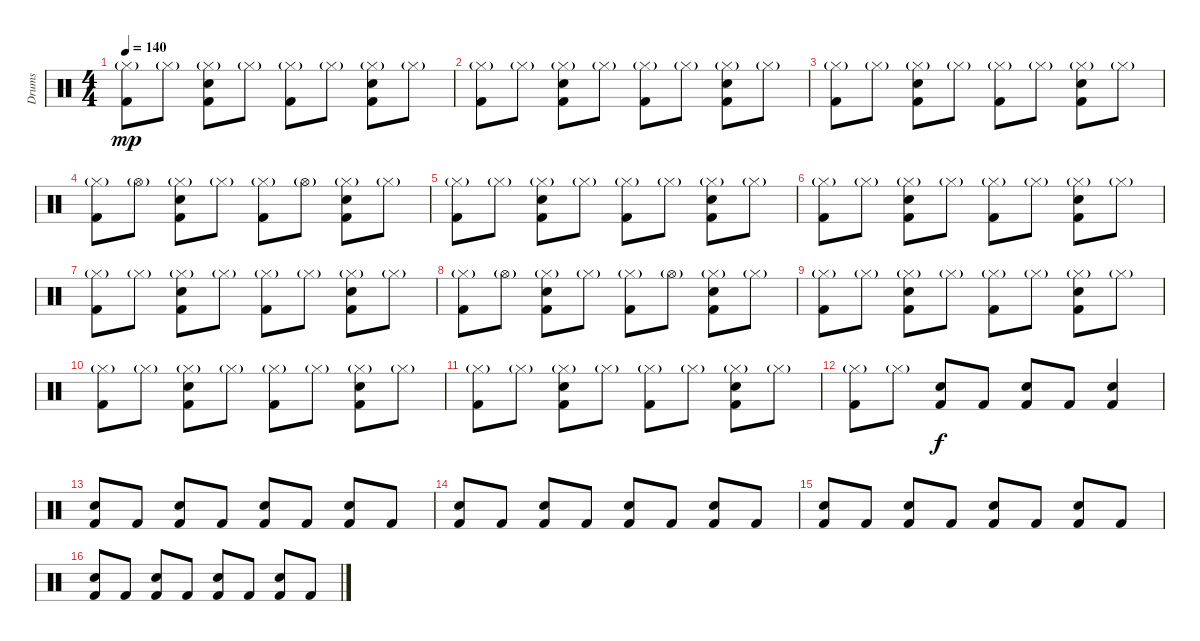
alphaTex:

\track ("Drums" "Drums") {instrument percussion}
\staff {score}
\articulation defaults
\ts (4 4)
\tempo 140
\clef neutral
\ks c
("Hi-Hat (closed)"{g} "Kick (hit) 2").8{dy mp} "Hi-Hat (closed)"{g}.8 ("Hi-Hat (closed)"{g} "Electric Snare (hit)" "Kick (hit) 2").8 "Hi-Hat (closed)"{g}.8 ("Hi-Hat (closed)"{g} "Kick (hit) 2").8 "Hi-Hat (closed)"{g}.8 ("Hi-Hat (closed)"{g} "Electric Snare (hit)" "Kick (hit) 2").8 "Hi-Hat (closed)"{g}.8 |
("Hi-Hat (closed)"{g} "Kick (hit) 2").8 "Hi-Hat (closed)"{g}.8 ("Hi-Hat (closed)"{g} "Electric Snare (hit)" "Kick (hit) 2").8 "Hi-Hat (closed)"{g}.8 ("Hi-Hat (closed)"{g} "Kick (hit) 2").8 "Hi-Hat (closed)"{g}.8 ("Hi-Hat (closed)"{g} "Electric Snare (hit)" "Kick (hit) 2").8 "Hi-Hat (closed)"{g}.8 |
("Hi-Hat (closed)"{g} "Kick (hit) 2").8 "Hi-Hat (closed)"{g}.8 ("Hi-Hat (closed)"{g} "Electric Snare (hit)" "Kick (hit) 2").8 "Hi-Hat (closed)"{g}.8 ("Hi-Hat (closed)"{g} "Kick (hit) 2").8 "Hi-Hat (closed)"{g}.8 ("Hi-Hat (closed)"{g} "Electric Snare (hit)" "Kick (hit) 2").8 "Hi-Hat (closed)"{g}.8 |
("Hi-Hat (closed)"{g} "Kick (hit) 2").8 "Hi-Hat (open)"{g}.8 ("Hi-Hat (closed)"{g} "Electric Snare (hit)" "Kick (hit) 2").8 "Hi-Hat (closed)"{g}.8 ("Hi-Hat (closed)"{g} "Kick (hit) 2").8 "Hi-Hat (open)"{g}.8 ("Hi-Hat (closed)"{g} "Electric Snare (hit)" "Kick (hit) 2").8 "Hi-Hat (closed)"{g}.8 |
("Hi-Hat (closed)"{g} "Kick (hit) 2").8 "Hi-Hat (closed)"{g}.8 ("Hi-Hat (closed)"{g} "Electric Snare (hit)" "Kick (hit) 2").8 "Hi-Hat (closed)"{g}.8 ("Hi-Hat (closed)"{g} "Kick (hit) 2").8 "Hi-Hat (closed)"{g}.8 ("Hi-Hat (closed)"{g} "Electric Snare (hit)" "Kick (hit) 2").8 "Hi-Hat (closed)"{g}.8 |
("Hi-Hat (closed)"{g} "Kick (hit) 2").8 "Hi-Hat (closed)"{g}.8 ("Hi-Hat (closed)"{g} "Electric Snare (hit)" "Kick (hit) 2").8 "Hi-Hat (closed)"{g}.8 ("Hi-Hat (closed)"{g} "Kick (hit) 2").8 "Hi-Hat (closed)"{g}.8 ("Hi-Hat (closed)"{g} "Electric Snare (hit)" "Kick (hit) 2").8 "Hi-Hat (closed)"{g}.8 |
("Hi-Hat (closed)"{g} "Kick (hit) 2").8 "Hi-Hat (closed)"{g}.8 ("Hi-Hat (closed)"{g} "Electric Snare (hit)" "Kick (hit) 2").8 "Hi-Hat (closed)"{g}.8 ("Hi-Hat (closed)"{g} "Kick (hit) 2").8 "Hi-Hat (closed)"{g}.8 ("Hi-Hat (closed)"{g} "Electric Snare (hit)" "Kick (hit) 2").8 "Hi-Hat (closed)"{g}.8 |
("Hi-Hat (closed)"{g} "Kick (hit) 2").8 "Hi-Hat (open)"{g}.8 ("Hi-Hat (closed)"{g} "Electric Snare (hit)" "Kick (hit) 2").8 "Hi-Hat (closed)"{g}.8 ("Hi-Hat (closed)"{g} "Kick (hit) 2").8 "Hi-Hat (open)"{g}.8 ("Hi-Hat (closed)"{g} "Electric Snare (hit)" "Kick (hit) 2").8 "Hi-Hat (closed)"{g}.8 |
("Hi-Hat (closed)"{g} "Kick (hit) 2").8 "Hi-Hat (closed)"{g}.8 ("Hi-Hat (closed)"{g} "Electric Snare (hit)" "Kick (hit) 2").8 "Hi-Hat (closed)"{g}.8 ("Hi-Hat (closed)"{g} "Kick (hit) 2").8 "Hi-Hat (closed)"{g}.8 ("Hi-Hat (closed)"{g} "Electric Snare (hit)" "Kick (hit) 2").8 "Hi-Hat (closed)"{g}.8 |
("Hi-Hat (closed)"{g} "Kick (hit) 2").8 "Hi-Hat (closed)"{g}.8 ("Hi-Hat (closed)"{g} "Electric Snare (hit)" "Kick (hit) 2").8 "Hi-Hat (closed)"{g}.8 ("Hi-Hat (closed)"{g} "Kick (hit) 2").8 "Hi-Hat (closed)"{g}.8 ("Hi-Hat (closed)"{g} "Electric Snare (hit)" "Kick (hit) 2").8 "Hi-Hat (closed)"{g}.8 |
("Hi-Hat (closed)"{g} "Kick (hit) 2").8 "Hi-Hat (closed)"{g}.8 ("Hi-Hat (closed)"{g} "Electric Snare (hit)" "Kick (hit) 2").8 "Hi-Hat (closed)"{g}.8 ("Hi-Hat (closed)"{g} "Kick (hit) 2").8 "Hi-Hat (closed)"{g}.8 ("Hi-Hat (closed)"{g} "Electric Snare (hit)" "Kick (hit) 2").8 "Hi-Hat (closed)"{g}.8 |
("Hi-Hat (closed)"{g} "Kick (hit) 2").8 "Hi-Hat (closed)"{g}.8 ("Electric Snare (hit)" "Kick (hit) 2").8{dy f} "Kick (hit) 2".8 ("Electric Snare (hit)" "Kick (hit) 2").8 "Kick (hit) 2".8 ("Electric Snare (hit)" "Kick (hit) 2").4 |
("Electric Snare (hit)" "Kick (hit) 2").8 "Kick (hit) 2".8 ("Electric Snare (hit)" "Kick (hit) 2").8 "Kick (hit) 2".8 ("Electric Snare (hit)" "Kick (hit) 2").8 "Kick (hit) 2".8 ("Electric Snare (hit)" "Kick (hit) 2").8 "Kick (hit) 2".8 |
("Electric Snare (hit)" "Kick (hit) 2").8 "Kick (hit) 2".8 ("Electric Snare (hit)" "Kick (hit) 2").8 "Kick (hit) 2".8 ("Electric Snare (hit)" "Kick (hit) 2").8 "Kick (hit) 2".8 ("Electric Snare (hit)" "Kick (hit) 2").8 "Kick (hit) 2".8 |
("Electric Snare (hit)" "Kick (hit) 2").8 "Kick (hit) 2".8 ("Electric Snare (hit)" "Kick (hit) 2").8 "Kick (hit) 2".8 ("Electric Snare (hit)" "Kick (hit) 2").8 "Kick (hit) 2".8 ("Electric Snare (hit)" "Kick (hit) 2").8 "Kick (hit) 2".8 |
("Electric Snare (hit)" "Kick (hit) 2").8 "Kick (hit) 2".8 ("Electric Snare (hit)" "Kick (hit) 2").8 "Kick (hit) 2".8 ("Electric Snare (hit)" "Kick (hit) 2").8 "Kick (hit) 2".8 ("Electric Snare (hit)" "Kick (hit) 2").8 "Kick (hit) 2".8
